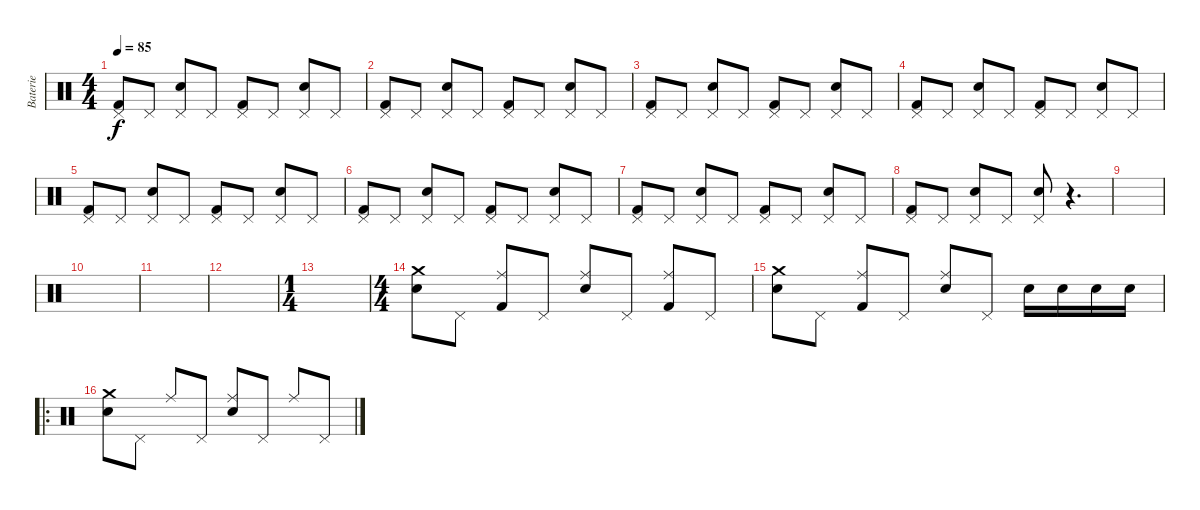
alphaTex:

\track ("Baterie" "Baterie") {instrument percussion}
\staff {score}
\articulation defaults
\ts (4 4)
\tempo 85
\clef neutral
\ks c
("Pedal Hi-Hat (hit)" "Kick (hit) 2").8{dy f} "Pedal Hi-Hat (hit)".8 ("Pedal Hi-Hat (hit)" "Electric Snare (hit)").8 "Pedal Hi-Hat (hit)".8 ("Pedal Hi-Hat (hit)" "Kick (hit) 2").8 "Pedal Hi-Hat (hit)".8 ("Pedal Hi-Hat (hit)" "Electric Snare (hit)").8 "Pedal Hi-Hat (hit)".8 |
("Pedal Hi-Hat (hit)" "Kick (hit) 2").8 "Pedal Hi-Hat (hit)".8 ("Pedal Hi-Hat (hit)" "Electric Snare (hit)").8 "Pedal Hi-Hat (hit)".8 ("Pedal Hi-Hat (hit)" "Kick (hit) 2").8 "Pedal Hi-Hat (hit)".8 ("Pedal Hi-Hat (hit)" "Electric Snare (hit)").8 "Pedal Hi-Hat (hit)".8 |
("Pedal Hi-Hat (hit)" "Kick (hit) 2").8 "Pedal Hi-Hat (hit)".8 ("Pedal Hi-Hat (hit)" "Electric Snare (hit)").8 "Pedal Hi-Hat (hit)".8 ("Pedal Hi-Hat (hit)" "Kick (hit) 2").8 "Pedal Hi-Hat (hit)".8 ("Pedal Hi-Hat (hit)" "Electric Snare (hit)").8 "Pedal Hi-Hat (hit)".8 |
("Pedal Hi-Hat (hit)" "Kick (hit) 2").8 "Pedal Hi-Hat (hit)".8 ("Pedal Hi-Hat (hit)" "Electric Snare (hit)").8 "Pedal Hi-Hat (hit)".8 ("Pedal Hi-Hat (hit)" "Kick (hit) 2").8 "Pedal Hi-Hat (hit)".8 ("Pedal Hi-Hat (hit)" "Electric Snare (hit)").8 "Pedal Hi-Hat (hit)".8 |
("Pedal Hi-Hat (hit)" "Kick (hit) 2").8 "Pedal Hi-Hat (hit)".8 ("Pedal Hi-Hat (hit)" "Electric Snare (hit)").8 "Pedal Hi-Hat (hit)".8 ("Pedal Hi-Hat (hit)" "Kick (hit) 2").8 "Pedal Hi-Hat (hit)".8 ("Pedal Hi-Hat (hit)" "Electric Snare (hit)").8 "Pedal Hi-Hat (hit)".8 |
("Pedal Hi-Hat (hit)" "Kick (hit) 2").8 "Pedal Hi-Hat (hit)".8 ("Pedal Hi-Hat (hit)" "Electric Snare (hit)").8 "Pedal Hi-Hat (hit)".8 ("Pedal Hi-Hat (hit)" "Kick (hit) 2").8 "Pedal Hi-Hat (hit)".8 ("Pedal Hi-Hat (hit)" "Electric Snare (hit)").8 "Pedal Hi-Hat (hit)".8 |
("Pedal Hi-Hat (hit)" "Kick (hit) 2").8 "Pedal Hi-Hat (hit)".8 ("Pedal Hi-Hat (hit)" "Electric Snare (hit)").8 "Pedal Hi-Hat (hit)".8 ("Pedal Hi-Hat (hit)" "Kick (hit) 2").8 "Pedal Hi-Hat (hit)".8 ("Pedal Hi-Hat (hit)" "Electric Snare (hit)").8 "Pedal Hi-Hat (hit)".8 |
("Pedal Hi-Hat (hit)" "Kick (hit) 2").8 "Pedal Hi-Hat (hit)".8 ("Pedal Hi-Hat (hit)" "Electric Snare (hit)").8 "Pedal Hi-Hat (hit)".8 ("Pedal Hi-Hat (hit)" "Electric Snare (hit)").8 r.4{d} |
|
|
|
|
\ts (1 4)
|
\ts (4 4)
("Crash medium (hit)" "Electric Snare (hit)").8 "Pedal Hi-Hat (hit)".8 ("Ride (middle)" "Kick (hit) 2").8 "Pedal Hi-Hat (hit)".8 ("Ride (middle)" "Electric Snare (hit)").8 "Pedal Hi-Hat (hit)".8 ("Ride (middle)" "Kick (hit) 2").8 "Pedal Hi-Hat (hit)".8 |
("Crash medium (hit)" "Electric Snare (hit)").8 "Pedal Hi-Hat (hit)".8 ("Ride (middle)" "Kick (hit) 2").8 "Pedal Hi-Hat (hit)".8 ("Ride (middle)" "Electric Snare (hit)").8 "Pedal Hi-Hat (hit)".8 "Electric Snare (hit)".16 "Electric Snare (hit)".16 "Electric Snare (hit)".16 "Electric Snare (hit)".16 |
\ro
("Crash medium (hit)" "Electric Snare (hit)").8 "Pedal Hi-Hat (hit)".8 "Ride (middle)".8 "Pedal Hi-Hat (hit)".8 ("Ride (middle)" "Electric Snare (hit)").8 "Pedal Hi-Hat (hit)".8 "Ride (middle)".8 "Pedal Hi-Hat (hit)".8
